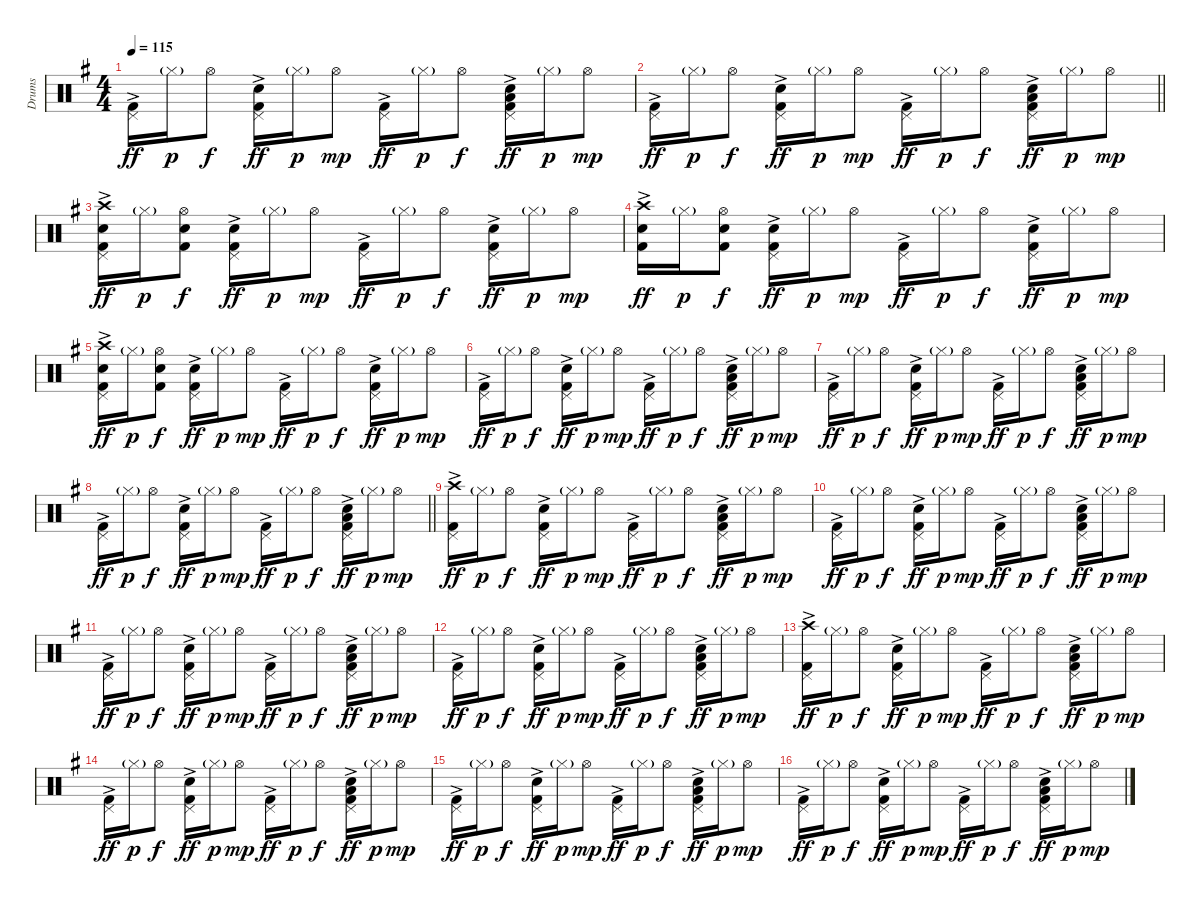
\track ("Drums" "Drums") {instrument percussion}
\staff {score}
\articulation defaults
\ts (4 4)
\tempo 115
\clef neutral
\ks g
("Pedal Hi-Hat (hit)" "Kick (hit) 2"{ac}).16{dy ff} "Hi-Hat (closed)"{g}.16{dy p} "Hi-Hat (open)".8{dy f} ("Pedal Hi-Hat (hit)" "Snare (hit) 2"{ac} "Kick (hit) 2"{ac}).16{dy ff} "Hi-Hat (closed)"{g}.16{dy p} "Hi-Hat (open)".8{dy mp} ("Pedal Hi-Hat (hit)" "Kick (hit) 2"{ac}).16{dy ff} "Hi-Hat (closed)"{g}.16{dy p} "Hi-Hat (open)".8{dy f} ("Pedal Hi-Hat (hit)" "Snare (hit) 2"{ac} "Low Tom (hit)" "Kick (hit) 2"{ac}).16{dy ff} "Hi-Hat (closed)"{g}.16{dy p} "Hi-Hat (open)".8{dy mp} |
\barLineRight lightlight
("Pedal Hi-Hat (hit)" "Kick (hit) 2"{ac}).16{dy ff} "Hi-Hat (closed)"{g}.16{dy p} "Hi-Hat (open)".8{dy f} ("Pedal Hi-Hat (hit)" "Snare (hit) 2"{ac} "Kick (hit) 2"{ac}).16{dy ff} "Hi-Hat (closed)"{g}.16{dy p} "Hi-Hat (open)".8{dy mp} ("Pedal Hi-Hat (hit)" "Kick (hit) 2"{ac}).16{dy ff} "Hi-Hat (closed)"{g}.16{dy p} "Hi-Hat (open)".8{dy f} ("Pedal Hi-Hat (hit)" "Snare (hit) 2"{ac} "Low Tom (hit)" "Kick (hit) 2"{ac}).16{dy ff} "Hi-Hat (closed)"{g}.16{dy p} "Hi-Hat (open)".8{dy mp} |
("Pedal Hi-Hat (hit)" "Crash high (hit)" "Snare (hit) 2" "Kick (hit) 2"{ac}).16{dy ff} "Hi-Hat (closed)"{g}.16{dy p} ("Hi-Hat (open)" "Snare (hit) 2" "Kick (hit) 2").8{dy f} ("Pedal Hi-Hat (hit)" "Snare (hit) 2"{ac} "Kick (hit) 2"{ac}).16{dy ff} "Hi-Hat (closed)"{g}.16{dy p} "Hi-Hat (open)".8{dy mp} ("Pedal Hi-Hat (hit)" "Kick (hit) 2"{ac}).16{dy ff} "Hi-Hat (closed)"{g}.16{dy p} "Hi-Hat (open)".8{dy f} ("Pedal Hi-Hat (hit)" "Snare (hit) 2"{ac} "Kick (hit) 2"{ac}).16{dy ff} "Hi-Hat (closed)"{g}.16{dy p} "Hi-Hat (open)".8{dy mp} |
("Crash high (hit)" "Snare (hit) 2" "Kick (hit) 2"{ac}).16{dy ff} "Hi-Hat (closed)"{g}.16{dy p} ("Hi-Hat (open)" "Snare (hit) 2" "Kick (hit) 2").8{dy f} ("Pedal Hi-Hat (hit)" "Snare (hit) 2"{ac} "Kick (hit) 2"{ac}).16{dy ff} "Hi-Hat (closed)"{g}.16{dy p} "Hi-Hat (open)".8{dy mp} ("Pedal Hi-Hat (hit)" "Kick (hit) 2"{ac}).16{dy ff} "Hi-Hat (closed)"{g}.16{dy p} "Hi-Hat (open)".8{dy f} ("Pedal Hi-Hat (hit)" "Snare (hit) 2"{ac} "Kick (hit) 2"{ac}).16{dy ff} "Hi-Hat (closed)"{g}.16{dy p} "Hi-Hat (open)".8{dy mp} |
("Pedal Hi-Hat (hit)" "Crash high (hit)" "Snare (hit) 2" "Kick (hit) 2"{ac}).16{dy ff} "Hi-Hat (closed)"{g}.16{dy p} ("Hi-Hat (open)" "Snare (hit) 2" "Kick (hit) 2").8{dy f} ("Pedal Hi-Hat (hit)" "Snare (hit) 2"{ac} "Kick (hit) 2"{ac}).16{dy ff} "Hi-Hat (closed)"{g}.16{dy p} "Hi-Hat (open)".8{dy mp} ("Pedal Hi-Hat (hit)" "Kick (hit) 2"{ac}).16{dy ff} "Hi-Hat (closed)"{g}.16{dy p} "Hi-Hat (open)".8{dy f} ("Pedal Hi-Hat (hit)" "Snare (hit) 2"{ac} "Kick (hit) 2"{ac}).16{dy ff} "Hi-Hat (closed)"{g}.16{dy p} "Hi-Hat (open)".8{dy mp} |
("Pedal Hi-Hat (hit)" "Kick (hit) 2"{ac}).16{dy ff} "Hi-Hat (closed)"{g}.16{dy p} "Hi-Hat (open)".8{dy f} ("Pedal Hi-Hat (hit)" "Snare (hit) 2"{ac} "Kick (hit) 2"{ac}).16{dy ff} "Hi-Hat (closed)"{g}.16{dy p} "Hi-Hat (open)".8{dy mp} ("Pedal Hi-Hat (hit)" "Kick (hit) 2"{ac}).16{dy ff} "Hi-Hat (closed)"{g}.16{dy p} "Hi-Hat (open)".8{dy f} ("Pedal Hi-Hat (hit)" "Snare (hit) 2"{ac} "Low Tom (hit)" "Kick (hit) 2"{ac}).16{dy ff} "Hi-Hat (closed)"{g}.16{dy p} "Hi-Hat (open)".8{dy mp} |
("Pedal Hi-Hat (hit)" "Kick (hit) 2"{ac}).16{dy ff} "Hi-Hat (closed)"{g}.16{dy p} "Hi-Hat (open)".8{dy f} ("Pedal Hi-Hat (hit)" "Snare (hit) 2"{ac} "Kick (hit) 2"{ac}).16{dy ff} "Hi-Hat (closed)"{g}.16{dy p} "Hi-Hat (open)".8{dy mp} ("Pedal Hi-Hat (hit)" "Kick (hit) 2"{ac}).16{dy ff} "Hi-Hat (closed)"{g}.16{dy p} "Hi-Hat (open)".8{dy f} ("Pedal Hi-Hat (hit)" "Snare (hit) 2"{ac} "Low Tom (hit)" "Kick (hit) 2"{ac}).16{dy ff} "Hi-Hat (closed)"{g}.16{dy p} "Hi-Hat (open)".8{dy mp} |
\barLineRight lightlight
("Pedal Hi-Hat (hit)" "Kick (hit) 2"{ac}).16{dy ff} "Hi-Hat (closed)"{g}.16{dy p} "Hi-Hat (open)".8{dy f} ("Pedal Hi-Hat (hit)" "Snare (hit) 2"{ac} "Kick (hit) 2"{ac}).16{dy ff} "Hi-Hat (closed)"{g}.16{dy p} "Hi-Hat (open)".8{dy mp} ("Pedal Hi-Hat (hit)" "Kick (hit) 2"{ac}).16{dy ff} "Hi-Hat (closed)"{g}.16{dy p} "Hi-Hat (open)".8{dy f} ("Pedal Hi-Hat (hit)" "Snare (hit) 2"{ac} "Low Tom (hit)" "Kick (hit) 2"{ac}).16{dy ff} "Hi-Hat (closed)"{g}.16{dy p} "Hi-Hat (open)".8{dy mp} |
("Pedal Hi-Hat (hit)" "Crash high (hit)" "Kick (hit) 2"{ac}).16{dy ff} "Hi-Hat (closed)"{g}.16{dy p} "Hi-Hat (open)".8{dy f} ("Pedal Hi-Hat (hit)" "Snare (hit) 2"{ac} "Kick (hit) 2"{ac}).16{dy ff} "Hi-Hat (closed)"{g}.16{dy p} "Hi-Hat (open)".8{dy mp} ("Pedal Hi-Hat (hit)" "Kick (hit) 2"{ac}).16{dy ff} "Hi-Hat (closed)"{g}.16{dy p} "Hi-Hat (open)".8{dy f} ("Pedal Hi-Hat (hit)" "Snare (hit) 2"{ac} "Low Tom (hit)" "Kick (hit) 2"{ac}).16{dy ff} "Hi-Hat (closed)"{g}.16{dy p} "Hi-Hat (open)".8{dy mp} |
("Pedal Hi-Hat (hit)" "Kick (hit) 2"{ac}).16{dy ff} "Hi-Hat (closed)"{g}.16{dy p} "Hi-Hat (open)".8{dy f} ("Pedal Hi-Hat (hit)" "Snare (hit) 2"{ac} "Kick (hit) 2"{ac}).16{dy ff} "Hi-Hat (closed)"{g}.16{dy p} "Hi-Hat (open)".8{dy mp} ("Pedal Hi-Hat (hit)" "Kick (hit) 2"{ac}).16{dy ff} "Hi-Hat (closed)"{g}.16{dy p} "Hi-Hat (open)".8{dy f} ("Pedal Hi-Hat (hit)" "Snare (hit) 2"{ac} "Low Tom (hit)" "Kick (hit) 2"{ac}).16{dy ff} "Hi-Hat (closed)"{g}.16{dy p} "Hi-Hat (open)".8{dy mp} |
("Pedal Hi-Hat (hit)" "Kick (hit) 2"{ac}).16{dy ff} "Hi-Hat (closed)"{g}.16{dy p} "Hi-Hat (open)".8{dy f} ("Pedal Hi-Hat (hit)" "Snare (hit) 2"{ac} "Kick (hit) 2"{ac}).16{dy ff} "Hi-Hat (closed)"{g}.16{dy p} "Hi-Hat (open)".8{dy mp} ("Pedal Hi-Hat (hit)" "Kick (hit) 2"{ac}).16{dy ff} "Hi-Hat (closed)"{g}.16{dy p} "Hi-Hat (open)".8{dy f} ("Pedal Hi-Hat (hit)" "Snare (hit) 2"{ac} "Low Tom (hit)" "Kick (hit) 2"{ac}).16{dy ff} "Hi-Hat (closed)"{g}.16{dy p} "Hi-Hat (open)".8{dy mp} |
("Pedal Hi-Hat (hit)" "Kick (hit) 2"{ac}).16{dy ff} "Hi-Hat (closed)"{g}.16{dy p} "Hi-Hat (open)".8{dy f} ("Pedal Hi-Hat (hit)" "Snare (hit) 2"{ac} "Kick (hit) 2"{ac}).16{dy ff} "Hi-Hat (closed)"{g}.16{dy p} "Hi-Hat (open)".8{dy mp} ("Pedal Hi-Hat (hit)" "Kick (hit) 2"{ac}).16{dy ff} "Hi-Hat (closed)"{g}.16{dy p} "Hi-Hat (open)".8{dy f} ("Pedal Hi-Hat (hit)" "Snare (hit) 2"{ac} "Low Tom (hit)" "Kick (hit) 2"{ac}).16{dy ff} "Hi-Hat (closed)"{g}.16{dy p} "Hi-Hat (open)".8{dy mp} |
("Pedal Hi-Hat (hit)" "Crash high (hit)" "Kick (hit) 2"{ac}).16{dy ff} "Hi-Hat (closed)"{g}.16{dy p} "Hi-Hat (open)".8{dy f} ("Pedal Hi-Hat (hit)" "Snare (hit) 2"{ac} "Kick (hit) 2"{ac}).16{dy ff} "Hi-Hat (closed)"{g}.16{dy p} "Hi-Hat (open)".8{dy mp} ("Pedal Hi-Hat (hit)" "Kick (hit) 2"{ac}).16{dy ff} "Hi-Hat (closed)"{g}.16{dy p} "Hi-Hat (open)".8{dy f} ("Pedal Hi-Hat (hit)" "Snare (hit) 2"{ac} "Low Tom (hit)" "Kick (hit) 2"{ac}).16{dy ff} "Hi-Hat (closed)"{g}.16{dy p} "Hi-Hat (open)".8{dy mp} |
("Pedal Hi-Hat (hit)" "Kick (hit) 2"{ac}).16{dy ff} "Hi-Hat (closed)"{g}.16{dy p} "Hi-Hat (open)".8{dy f} ("Pedal Hi-Hat (hit)" "Snare (hit) 2"{ac} "Kick (hit) 2"{ac}).16{dy ff} "Hi-Hat (closed)"{g}.16{dy p} "Hi-Hat (open)".8{dy mp} ("Pedal Hi-Hat (hit)" "Kick (hit) 2"{ac}).16{dy ff} "Hi-Hat (closed)"{g}.16{dy p} "Hi-Hat (open)".8{dy f} ("Pedal Hi-Hat (hit)" "Snare (hit) 2"{ac} "Low Tom (hit)" "Kick (hit) 2"{ac}).16{dy ff} "Hi-Hat (closed)"{g}.16{dy p} "Hi-Hat (open)".8{dy mp} |
("Pedal Hi-Hat (hit)" "Kick (hit) 2"{ac}).16{dy ff} "Hi-Hat (closed)"{g}.16{dy p} "Hi-Hat (open)".8{dy f} ("Pedal Hi-Hat (hit)" "Snare (hit) 2"{ac} "Kick (hit) 2"{ac}).16{dy ff} "Hi-Hat (closed)"{g}.16{dy p} "Hi-Hat (open)".8{dy mp} ("Pedal Hi-Hat (hit)" "Kick (hit) 2"{ac}).16{dy ff} "Hi-Hat (closed)"{g}.16{dy p} "Hi-Hat (open)".8{dy f} ("Pedal Hi-Hat (hit)" "Snare (hit) 2"{ac} "Low Tom (hit)" "Kick (hit) 2"{ac}).16{dy ff} "Hi-Hat (closed)"{g}.16{dy p} "Hi-Hat (open)".8{dy mp} |
("Pedal Hi-Hat (hit)" "Kick (hit) 2"{ac}).16{dy ff} "Hi-Hat (closed)"{g}.16{dy p} "Hi-Hat (open)".8{dy f} ("Pedal Hi-Hat (hit)" "Snare (hit) 2"{ac} "Kick (hit) 2"{ac}).16{dy ff} "Hi-Hat (closed)"{g}.16{dy p} "Hi-Hat (open)".8{dy mp} ("Pedal Hi-Hat (hit)" "Kick (hit) 2"{ac}).16{dy ff} "Hi-Hat (closed)"{g}.16{dy p} "Hi-Hat (open)".8{dy f} ("Pedal Hi-Hat (hit)" "Snare (hit) 2"{ac} "Low Tom (hit)" "Kick (hit) 2"{ac}).16{dy ff} "Hi-Hat (closed)"{g}.16{dy p} "Hi-Hat (open)".8{dy mp}
